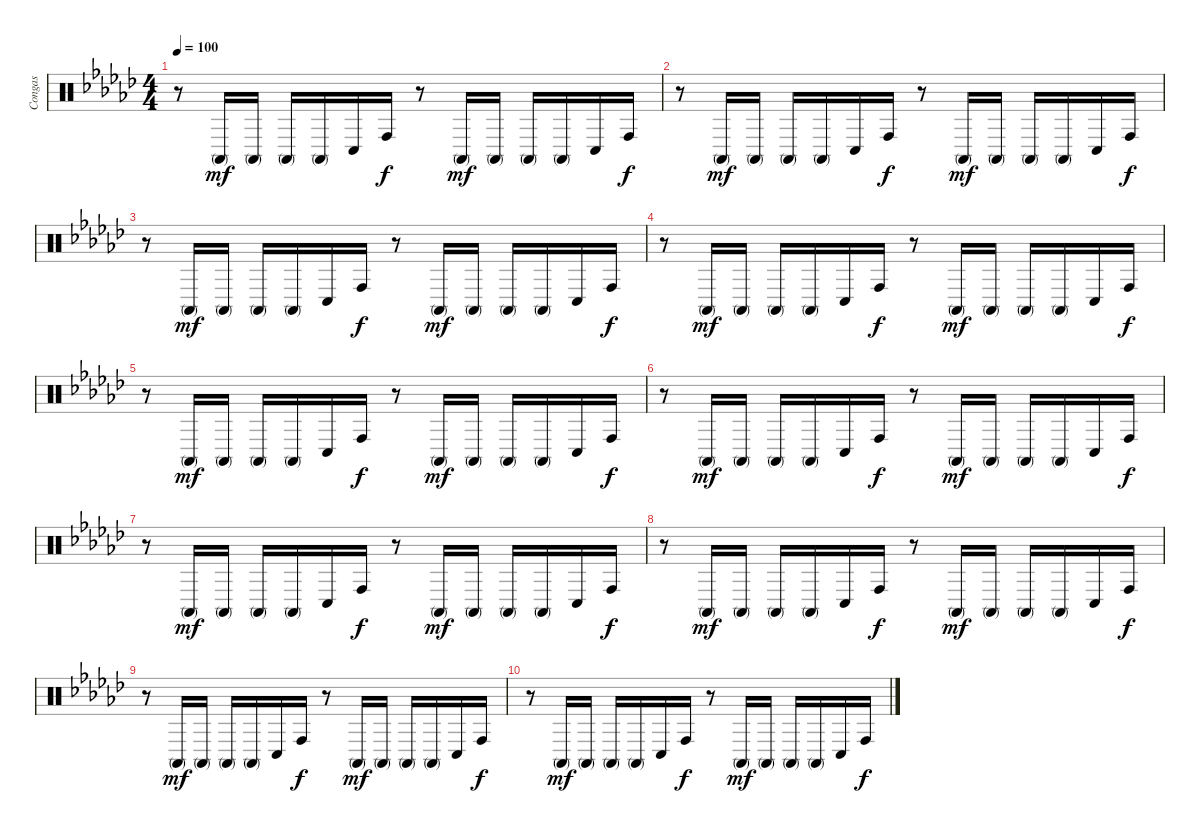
\track ("Congas" "Congas") {instrument percussion}
\staff {score}
\articulation defaults
\ts (4 4)
\tempo 100
\clef neutral
\ks ebminor
r.8{dy f} "Conga high (mute)".16{dy mf} "Conga high (mute)".16 "Conga high (mute)".16 "Conga high (mute)".16 "Conga low (hit)".16 "Conga high (hit)".16{dy f} r.8 "Conga high (mute)".16{dy mf} "Conga high (mute)".16 "Conga high (mute)".16 "Conga high (mute)".16 "Conga low (hit)".16 "Conga high (hit)".16{dy f} |
r.8 "Conga high (mute)".16{dy mf} "Conga high (mute)".16 "Conga high (mute)".16 "Conga high (mute)".16 "Conga low (hit)".16 "Conga high (hit)".16{dy f} r.8 "Conga high (mute)".16{dy mf} "Conga high (mute)".16 "Conga high (mute)".16 "Conga high (mute)".16 "Conga low (hit)".16 "Conga high (hit)".16{dy f} |
r.8 "Conga high (mute)".16{dy mf} "Conga high (mute)".16 "Conga high (mute)".16 "Conga high (mute)".16 "Conga low (hit)".16 "Conga high (hit)".16{dy f} r.8 "Conga high (mute)".16{dy mf} "Conga high (mute)".16 "Conga high (mute)".16 "Conga high (mute)".16 "Conga low (hit)".16 "Conga high (hit)".16{dy f} |
r.8 "Conga high (mute)".16{dy mf} "Conga high (mute)".16 "Conga high (mute)".16 "Conga high (mute)".16 "Conga low (hit)".16 "Conga high (hit)".16{dy f} r.8 "Conga high (mute)".16{dy mf} "Conga high (mute)".16 "Conga high (mute)".16 "Conga high (mute)".16 "Conga low (hit)".16 "Conga high (hit)".16{dy f} |
r.8 "Conga high (mute)".16{dy mf} "Conga high (mute)".16 "Conga high (mute)".16 "Conga high (mute)".16 "Conga low (hit)".16 "Conga high (hit)".16{dy f} r.8 "Conga high (mute)".16{dy mf} "Conga high (mute)".16 "Conga high (mute)".16 "Conga high (mute)".16 "Conga low (hit)".16 "Conga high (hit)".16{dy f} |
r.8 "Conga high (mute)".16{dy mf} "Conga high (mute)".16 "Conga high (mute)".16 "Conga high (mute)".16 "Conga low (hit)".16 "Conga high (hit)".16{dy f} r.8 "Conga high (mute)".16{dy mf} "Conga high (mute)".16 "Conga high (mute)".16 "Conga high (mute)".16 "Conga low (hit)".16 "Conga high (hit)".16{dy f} |
r.8 "Conga high (mute)".16{dy mf} "Conga high (mute)".16 "Conga high (mute)".16 "Conga high (mute)".16 "Conga low (hit)".16 "Conga high (hit)".16{dy f} r.8 "Conga high (mute)".16{dy mf} "Conga high (mute)".16 "Conga high (mute)".16 "Conga high (mute)".16 "Conga low (hit)".16 "Conga high (hit)".16{dy f} |
r.8 "Conga high (mute)".16{dy mf} "Conga high (mute)".16 "Conga high (mute)".16 "Conga high (mute)".16 "Conga low (hit)".16 "Conga high (hit)".16{dy f} r.8 "Conga high (mute)".16{dy mf} "Conga high (mute)".16 "Conga high (mute)".16 "Conga high (mute)".16 "Conga low (hit)".16 "Conga high (hit)".16{dy f} |
r.8 "Conga high (mute)".16{dy mf} "Conga high (mute)".16 "Conga high (mute)".16 "Conga high (mute)".16 "Conga low (hit)".16 "Conga high (hit)".16{dy f} r.8 "Conga high (mute)".16{dy mf} "Conga high (mute)".16 "Conga high (mute)".16 "Conga high (mute)".16 "Conga low (hit)".16 "Conga high (hit)".16{dy f} |
r.8 "Conga high (mute)".16{dy mf} "Conga high (mute)".16 "Conga high (mute)".16 "Conga high (mute)".16 "Conga low (hit)".16 "Conga high (hit)".16{dy f} r.8 "Conga high (mute)".16{dy mf} "Conga high (mute)".16 "Conga high (mute)".16 "Conga high (mute)".16 "Conga low (hit)".16 "Conga high (hit)".16{dy f}
